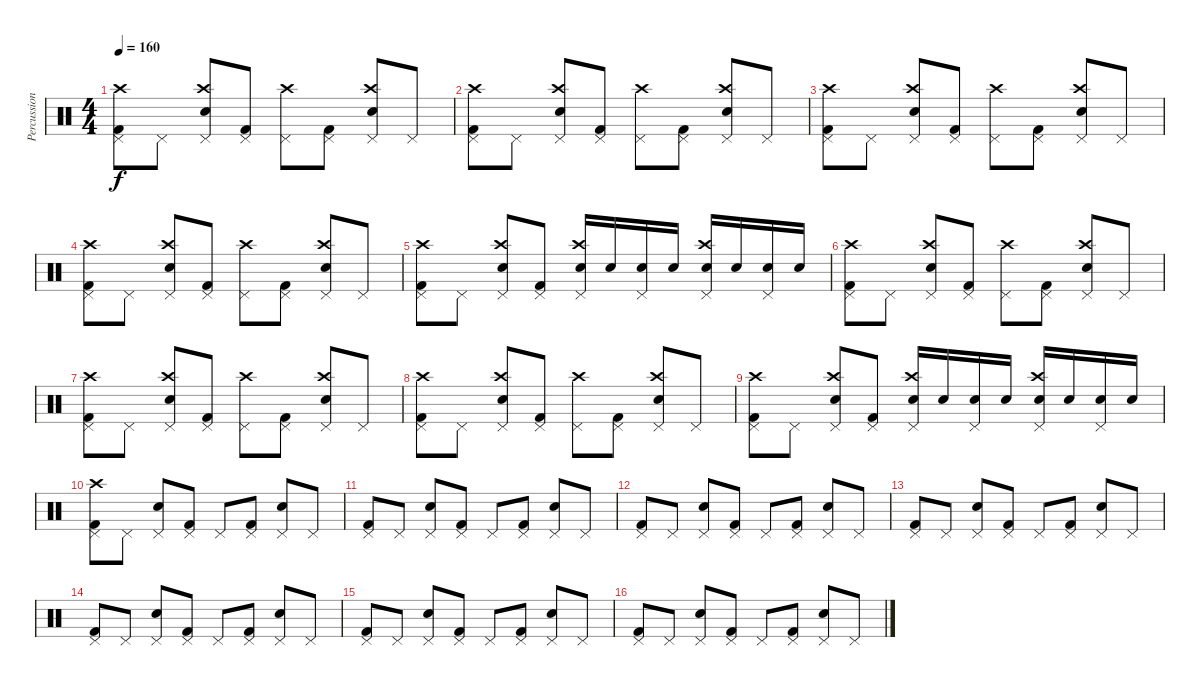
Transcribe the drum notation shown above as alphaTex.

\track ("Percussion" "Percussion") {instrument percussion}
\staff {score}
\articulation defaults
\ts (4 4)
\tempo 160
\clef neutral
\ks c
("Pedal Hi-Hat (hit)" "Kick (hit) 2" "Crash high (hit)").8{dy f} "Pedal Hi-Hat (hit)".8 ("Pedal Hi-Hat (hit)" "Electric Snare (hit)" "Crash high (hit)").8 ("Pedal Hi-Hat (hit)" "Kick (hit) 2").8 ("Pedal Hi-Hat (hit)" "Crash high (hit)").8 ("Pedal Hi-Hat (hit)" "Kick (hit) 2").8 ("Pedal Hi-Hat (hit)" "Electric Snare (hit)" "Crash high (hit)").8 "Pedal Hi-Hat (hit)".8 |
("Pedal Hi-Hat (hit)" "Kick (hit) 2" "Crash high (hit)").8 "Pedal Hi-Hat (hit)".8 ("Pedal Hi-Hat (hit)" "Electric Snare (hit)" "Crash high (hit)").8 ("Pedal Hi-Hat (hit)" "Kick (hit) 2").8 ("Pedal Hi-Hat (hit)" "Crash high (hit)").8 ("Pedal Hi-Hat (hit)" "Kick (hit) 2").8 ("Pedal Hi-Hat (hit)" "Electric Snare (hit)" "Crash high (hit)").8 "Pedal Hi-Hat (hit)".8 |
("Pedal Hi-Hat (hit)" "Kick (hit) 2" "Crash high (hit)").8 "Pedal Hi-Hat (hit)".8 ("Pedal Hi-Hat (hit)" "Electric Snare (hit)" "Crash high (hit)").8 ("Pedal Hi-Hat (hit)" "Kick (hit) 2").8 ("Pedal Hi-Hat (hit)" "Crash high (hit)").8 ("Pedal Hi-Hat (hit)" "Kick (hit) 2").8 ("Pedal Hi-Hat (hit)" "Electric Snare (hit)" "Crash high (hit)").8 "Pedal Hi-Hat (hit)".8 |
("Pedal Hi-Hat (hit)" "Kick (hit) 2" "Crash high (hit)").8 "Pedal Hi-Hat (hit)".8 ("Pedal Hi-Hat (hit)" "Electric Snare (hit)" "Crash high (hit)").8 ("Pedal Hi-Hat (hit)" "Kick (hit) 2").8 ("Pedal Hi-Hat (hit)" "Crash high (hit)").8 ("Pedal Hi-Hat (hit)" "Kick (hit) 2").8 ("Pedal Hi-Hat (hit)" "Electric Snare (hit)" "Crash high (hit)").8 "Pedal Hi-Hat (hit)".8 |
("Pedal Hi-Hat (hit)" "Kick (hit) 2" "Crash high (hit)").8 "Pedal Hi-Hat (hit)".8 ("Pedal Hi-Hat (hit)" "Electric Snare (hit)" "Crash high (hit)").8 ("Pedal Hi-Hat (hit)" "Kick (hit) 2").8 ("Pedal Hi-Hat (hit)" "Electric Snare (hit)" "Crash high (hit)").16 "Electric Snare (hit)".16 ("Pedal Hi-Hat (hit)" "Electric Snare (hit)").16 "Electric Snare (hit)".16 ("Pedal Hi-Hat (hit)" "Electric Snare (hit)" "Crash high (hit)").16 "Electric Snare (hit)".16 ("Pedal Hi-Hat (hit)" "Electric Snare (hit)").16 "Electric Snare (hit)".16 |
("Pedal Hi-Hat (hit)" "Kick (hit) 2" "Crash high (hit)").8 "Pedal Hi-Hat (hit)".8 ("Pedal Hi-Hat (hit)" "Electric Snare (hit)" "Crash high (hit)").8 ("Pedal Hi-Hat (hit)" "Kick (hit) 2").8 ("Pedal Hi-Hat (hit)" "Crash high (hit)").8 ("Pedal Hi-Hat (hit)" "Kick (hit) 2").8 ("Pedal Hi-Hat (hit)" "Electric Snare (hit)" "Crash high (hit)").8 "Pedal Hi-Hat (hit)".8 |
("Pedal Hi-Hat (hit)" "Kick (hit) 2" "Crash high (hit)").8 "Pedal Hi-Hat (hit)".8 ("Pedal Hi-Hat (hit)" "Electric Snare (hit)" "Crash high (hit)").8 ("Pedal Hi-Hat (hit)" "Kick (hit) 2").8 ("Pedal Hi-Hat (hit)" "Crash high (hit)").8 ("Pedal Hi-Hat (hit)" "Kick (hit) 2").8 ("Pedal Hi-Hat (hit)" "Electric Snare (hit)" "Crash high (hit)").8 "Pedal Hi-Hat (hit)".8 |
("Pedal Hi-Hat (hit)" "Kick (hit) 2" "Crash high (hit)").8 "Pedal Hi-Hat (hit)".8 ("Pedal Hi-Hat (hit)" "Electric Snare (hit)" "Crash high (hit)").8 ("Pedal Hi-Hat (hit)" "Kick (hit) 2").8 ("Pedal Hi-Hat (hit)" "Crash high (hit)").8 ("Pedal Hi-Hat (hit)" "Kick (hit) 2").8 ("Pedal Hi-Hat (hit)" "Electric Snare (hit)" "Crash high (hit)").8 "Pedal Hi-Hat (hit)".8 |
("Pedal Hi-Hat (hit)" "Kick (hit) 2" "Crash high (hit)").8 "Pedal Hi-Hat (hit)".8 ("Pedal Hi-Hat (hit)" "Electric Snare (hit)" "Crash high (hit)").8 ("Pedal Hi-Hat (hit)" "Kick (hit) 2").8 ("Pedal Hi-Hat (hit)" "Electric Snare (hit)" "Crash high (hit)").16 "Electric Snare (hit)".16 ("Pedal Hi-Hat (hit)" "Electric Snare (hit)").16 "Electric Snare (hit)".16 ("Pedal Hi-Hat (hit)" "Electric Snare (hit)" "Crash high (hit)").16 "Electric Snare (hit)".16 ("Pedal Hi-Hat (hit)" "Electric Snare (hit)").16 "Electric Snare (hit)".16 |
("Pedal Hi-Hat (hit)" "Kick (hit) 2" "Crash high (hit)").8 "Pedal Hi-Hat (hit)".8 ("Pedal Hi-Hat (hit)" "Electric Snare (hit)").8 ("Pedal Hi-Hat (hit)" "Kick (hit) 2").8 "Pedal Hi-Hat (hit)".8 ("Pedal Hi-Hat (hit)" "Kick (hit) 2").8 ("Pedal Hi-Hat (hit)" "Electric Snare (hit)").8 "Pedal Hi-Hat (hit)".8 |
("Pedal Hi-Hat (hit)" "Kick (hit) 2").8 "Pedal Hi-Hat (hit)".8 ("Pedal Hi-Hat (hit)" "Electric Snare (hit)").8 ("Pedal Hi-Hat (hit)" "Kick (hit) 2").8 "Pedal Hi-Hat (hit)".8 ("Pedal Hi-Hat (hit)" "Kick (hit) 2").8 ("Pedal Hi-Hat (hit)" "Electric Snare (hit)").8 "Pedal Hi-Hat (hit)".8 |
("Pedal Hi-Hat (hit)" "Kick (hit) 2").8 "Pedal Hi-Hat (hit)".8 ("Pedal Hi-Hat (hit)" "Electric Snare (hit)").8 ("Pedal Hi-Hat (hit)" "Kick (hit) 2").8 "Pedal Hi-Hat (hit)".8 ("Pedal Hi-Hat (hit)" "Kick (hit) 2").8 ("Pedal Hi-Hat (hit)" "Electric Snare (hit)").8 "Pedal Hi-Hat (hit)".8 |
("Pedal Hi-Hat (hit)" "Kick (hit) 2").8 "Pedal Hi-Hat (hit)".8 ("Pedal Hi-Hat (hit)" "Electric Snare (hit)").8 ("Pedal Hi-Hat (hit)" "Kick (hit) 2").8 "Pedal Hi-Hat (hit)".8 ("Pedal Hi-Hat (hit)" "Kick (hit) 2").8 ("Pedal Hi-Hat (hit)" "Electric Snare (hit)").8 "Pedal Hi-Hat (hit)".8 |
("Pedal Hi-Hat (hit)" "Kick (hit) 2").8 "Pedal Hi-Hat (hit)".8 ("Pedal Hi-Hat (hit)" "Electric Snare (hit)").8 ("Pedal Hi-Hat (hit)" "Kick (hit) 2").8 "Pedal Hi-Hat (hit)".8 ("Pedal Hi-Hat (hit)" "Kick (hit) 2").8 ("Pedal Hi-Hat (hit)" "Electric Snare (hit)").8 "Pedal Hi-Hat (hit)".8 |
("Pedal Hi-Hat (hit)" "Kick (hit) 2").8 "Pedal Hi-Hat (hit)".8 ("Pedal Hi-Hat (hit)" "Electric Snare (hit)").8 ("Pedal Hi-Hat (hit)" "Kick (hit) 2").8 "Pedal Hi-Hat (hit)".8 ("Pedal Hi-Hat (hit)" "Kick (hit) 2").8 ("Pedal Hi-Hat (hit)" "Electric Snare (hit)").8 "Pedal Hi-Hat (hit)".8 |
("Pedal Hi-Hat (hit)" "Kick (hit) 2").8 "Pedal Hi-Hat (hit)".8 ("Pedal Hi-Hat (hit)" "Electric Snare (hit)").8 ("Pedal Hi-Hat (hit)" "Kick (hit) 2").8 "Pedal Hi-Hat (hit)".8 ("Pedal Hi-Hat (hit)" "Kick (hit) 2").8 ("Pedal Hi-Hat (hit)" "Electric Snare (hit)").8 "Pedal Hi-Hat (hit)".8
